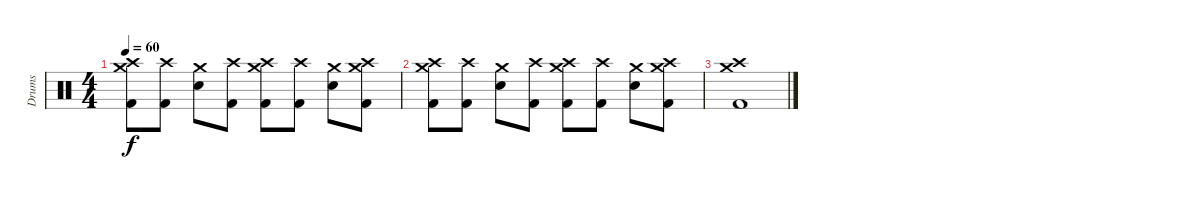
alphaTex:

\track ("Drums" "Drums") {instrument percussion}
\staff {score}
\articulation defaults
\ts (4 4)
\tempo 60
\clef neutral
\ks c
("Crash high (hit)" "Crash medium (hit)" "Kick (hit) 2").8{dy f} ("Crash high (hit)" "Kick (hit) 2").8 ("Crash medium (hit)" "Snare (hit) 2").8 ("Crash high (hit)" "Kick (hit) 2").8 ("Crash medium (hit)" "Crash high (hit)" "Kick (hit) 2").8 ("Crash high (hit)" "Kick (hit) 2").8 ("Crash medium (hit)" "Snare (hit) 2").8 ("Crash high (hit)" "Crash medium (hit)" "Kick (hit) 2").8 |
("Crash high (hit)" "Crash medium (hit)" "Kick (hit) 2").8 ("Crash high (hit)" "Kick (hit) 2").8 ("Crash medium (hit)" "Snare (hit) 2").8 ("Crash high (hit)" "Kick (hit) 2").8 ("Crash medium (hit)" "Crash high (hit)" "Kick (hit) 2").8 ("Crash high (hit)" "Kick (hit) 2").8 ("Crash medium (hit)" "Snare (hit) 2").8 ("Crash high (hit)" "Crash medium (hit)" "Kick (hit) 2").8 |
("Crash high (hit)" "Crash medium (hit)" "Kick (hit) 2").1
